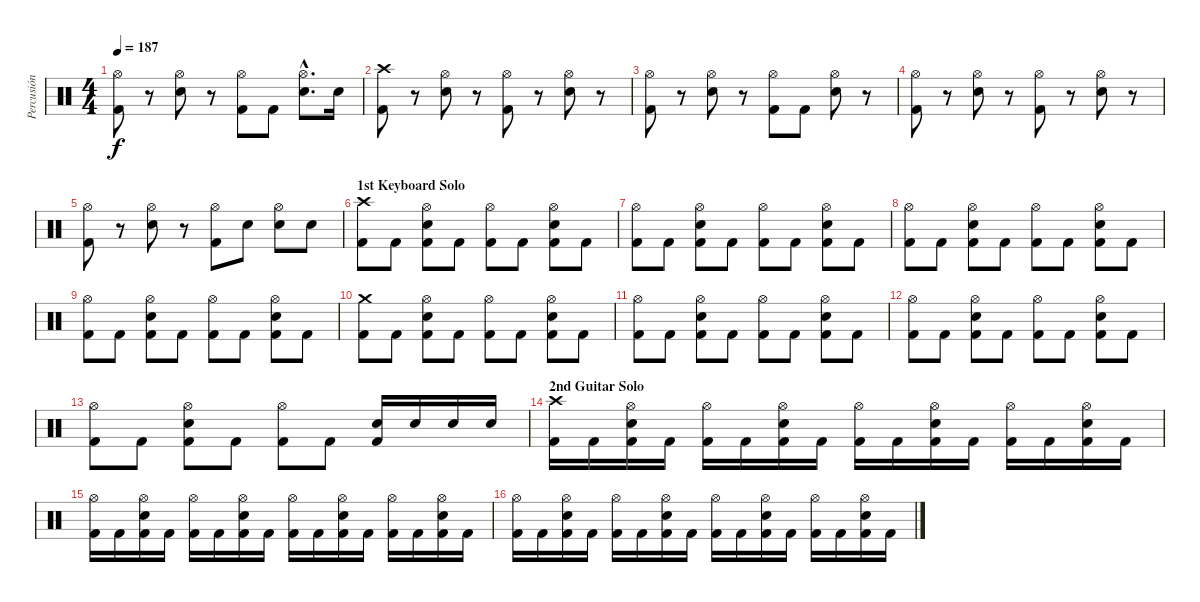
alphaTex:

\track ("Percusión" "Percusión") {instrument percussion}
\staff {score}
\articulation defaults
\ts (4 4)
\tempo 187
\clef neutral
\ks c
("Hi-Hat (open)" "Kick (hit) 2").8{dy f} r.8 ("Hi-Hat (open)" "Electric Snare (hit)").8 r.8 ("Hi-Hat (open)" "Kick (hit) 2").8 "Kick (hit) 2".8 ("Hi-Hat (open)"{hac} "Electric Snare (hit)"{hac}).8{d} "Electric Snare (hit)".16 |
("Crash high (hit)" "Kick (hit) 2").8 r.8 ("Hi-Hat (open)" "Electric Snare (hit)").8 r.8 ("Hi-Hat (open)" "Kick (hit) 2").8 r.8 ("Hi-Hat (open)" "Electric Snare (hit)").8 r.8 |
("Hi-Hat (open)" "Kick (hit) 2").8 r.8 ("Hi-Hat (open)" "Electric Snare (hit)").8 r.8 ("Hi-Hat (open)" "Kick (hit) 2").8 "Kick (hit) 2".8 ("Hi-Hat (open)" "Electric Snare (hit)").8 r.8 |
("Hi-Hat (open)" "Kick (hit) 2").8 r.8 ("Hi-Hat (open)" "Electric Snare (hit)").8 r.8 ("Hi-Hat (open)" "Kick (hit) 2").8 r.8 ("Hi-Hat (open)" "Electric Snare (hit)").8 r.8 |
("Hi-Hat (open)" "Kick (hit) 2").8 r.8 ("Hi-Hat (open)" "Electric Snare (hit)").8 r.8 ("Hi-Hat (open)" "Kick (hit) 2").8 "Electric Snare (hit)".8 ("Hi-Hat (open)" "Electric Snare (hit)").8 "Electric Snare (hit)".8 |
\section ("" "1st Keyboard Solo")
("Crash high (hit)" "Kick (hit) 2").8 "Kick (hit) 2".8 ("Hi-Hat (open)" "Electric Snare (hit)" "Kick (hit) 2").8 "Kick (hit) 2".8 ("Hi-Hat (open)" "Kick (hit) 2").8 "Kick (hit) 2".8 ("Hi-Hat (open)" "Electric Snare (hit)" "Kick (hit) 2").8 "Kick (hit) 2".8 |
("Hi-Hat (open)" "Kick (hit) 2").8 "Kick (hit) 2".8 ("Hi-Hat (open)" "Electric Snare (hit)" "Kick (hit) 2").8 "Kick (hit) 2".8 ("Hi-Hat (open)" "Kick (hit) 2").8 "Kick (hit) 2".8 ("Hi-Hat (open)" "Electric Snare (hit)" "Kick (hit) 2").8 "Kick (hit) 2".8 |
("Hi-Hat (open)" "Kick (hit) 2").8 "Kick (hit) 2".8 ("Hi-Hat (open)" "Electric Snare (hit)" "Kick (hit) 2").8 "Kick (hit) 2".8 ("Hi-Hat (open)" "Kick (hit) 2").8 "Kick (hit) 2".8 ("Hi-Hat (open)" "Electric Snare (hit)" "Kick (hit) 2").8 "Kick (hit) 2".8 |
("Hi-Hat (open)" "Kick (hit) 2").8 "Kick (hit) 2".8 ("Hi-Hat (open)" "Electric Snare (hit)" "Kick (hit) 2").8 "Kick (hit) 2".8 ("Hi-Hat (open)" "Kick (hit) 2").8 "Kick (hit) 2".8 ("Hi-Hat (open)" "Electric Snare (hit)" "Kick (hit) 2").8 "Kick (hit) 2".8 |
("Crash medium (hit)" "Kick (hit) 2").8 "Kick (hit) 2".8 ("Hi-Hat (open)" "Electric Snare (hit)" "Kick (hit) 2").8 "Kick (hit) 2".8 ("Hi-Hat (open)" "Kick (hit) 2").8 "Kick (hit) 2".8 ("Hi-Hat (open)" "Electric Snare (hit)" "Kick (hit) 2").8 "Kick (hit) 2".8 |
("Hi-Hat (open)" "Kick (hit) 2").8 "Kick (hit) 2".8 ("Hi-Hat (open)" "Electric Snare (hit)" "Kick (hit) 2").8 "Kick (hit) 2".8 ("Hi-Hat (open)" "Kick (hit) 2").8 "Kick (hit) 2".8 ("Hi-Hat (open)" "Electric Snare (hit)" "Kick (hit) 2").8 "Kick (hit) 2".8 |
("Hi-Hat (open)" "Kick (hit) 2").8 "Kick (hit) 2".8 ("Hi-Hat (open)" "Electric Snare (hit)" "Kick (hit) 2").8 "Kick (hit) 2".8 ("Hi-Hat (open)" "Kick (hit) 2").8 "Kick (hit) 2".8 ("Hi-Hat (open)" "Electric Snare (hit)" "Kick (hit) 2").8 "Kick (hit) 2".8 |
("Hi-Hat (open)" "Kick (hit) 2").8 "Kick (hit) 2".8 ("Hi-Hat (open)" "Electric Snare (hit)" "Kick (hit) 2").8 "Kick (hit) 2".8 ("Hi-Hat (open)" "Kick (hit) 2").8 "Kick (hit) 2".8 ("Electric Snare (hit)" "Kick (hit) 2").16 "Electric Snare (hit)".16 "Electric Snare (hit)".16 "Electric Snare (hit)".16 |
\section ("" "2nd Guitar Solo")
("Crash high (hit)" "Kick (hit) 2").16 "Kick (hit) 2".16 ("Hi-Hat (open)" "Electric Snare (hit)" "Kick (hit) 2").16 "Kick (hit) 2".16 ("Hi-Hat (open)" "Kick (hit) 2").16 "Kick (hit) 2".16 ("Hi-Hat (open)" "Electric Snare (hit)" "Kick (hit) 2").16 "Kick (hit) 2".16 ("Hi-Hat (open)" "Kick (hit) 2").16 "Kick (hit) 2".16 ("Hi-Hat (open)" "Electric Snare (hit)" "Kick (hit) 2").16 "Kick (hit) 2".16 ("Hi-Hat (open)" "Kick (hit) 2").16 "Kick (hit) 2".16 ("Hi-Hat (open)" "Electric Snare (hit)" "Kick (hit) 2").16 "Kick (hit) 2".16 |
("Hi-Hat (open)" "Kick (hit) 2").16 "Kick (hit) 2".16 ("Hi-Hat (open)" "Electric Snare (hit)" "Kick (hit) 2").16 "Kick (hit) 2".16 ("Hi-Hat (open)" "Kick (hit) 2").16 "Kick (hit) 2".16 ("Hi-Hat (open)" "Electric Snare (hit)" "Kick (hit) 2").16 "Kick (hit) 2".16 ("Hi-Hat (open)" "Kick (hit) 2").16 "Kick (hit) 2".16 ("Hi-Hat (open)" "Electric Snare (hit)" "Kick (hit) 2").16 "Kick (hit) 2".16 ("Hi-Hat (open)" "Kick (hit) 2").16 "Kick (hit) 2".16 ("Hi-Hat (open)" "Electric Snare (hit)" "Kick (hit) 2").16 "Kick (hit) 2".16 |
("Hi-Hat (open)" "Kick (hit) 2").16 "Kick (hit) 2".16 ("Hi-Hat (open)" "Electric Snare (hit)" "Kick (hit) 2").16 "Kick (hit) 2".16 ("Hi-Hat (open)" "Kick (hit) 2").16 "Kick (hit) 2".16 ("Hi-Hat (open)" "Electric Snare (hit)" "Kick (hit) 2").16 "Kick (hit) 2".16 ("Hi-Hat (open)" "Kick (hit) 2").16 "Kick (hit) 2".16 ("Hi-Hat (open)" "Electric Snare (hit)" "Kick (hit) 2").16 "Kick (hit) 2".16 ("Hi-Hat (open)" "Kick (hit) 2").16 "Kick (hit) 2".16 ("Hi-Hat (open)" "Electric Snare (hit)" "Kick (hit) 2").16 "Kick (hit) 2".16
